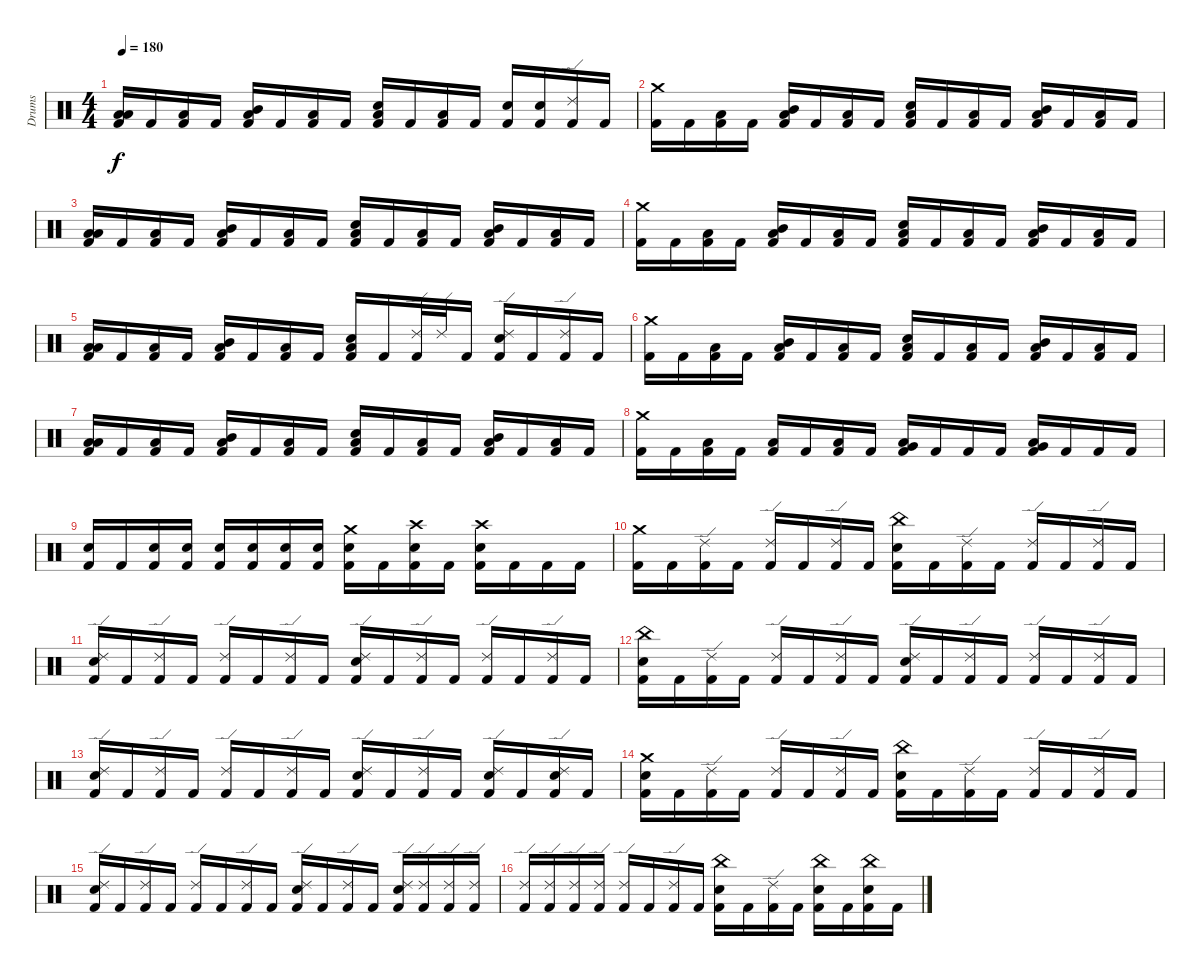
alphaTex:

\track ("Drums" "Drums") {instrument percussion}
\staff {score}
\articulation defaults
\ts (4 4)
\tempo 180
\clef neutral
\ks c
("Low Floor Tom (hit)" "Low Tom (hit)" "Kick (hit) 2").16{dy f} "Kick (hit) 2".16 ("Low Floor Tom (hit)" "Kick (hit) 2").16 "Kick (hit) 2".16 ("Low Floor Tom (hit)" "Mid Tom (hit)" "Kick (hit) 2").16 "Kick (hit) 2".16 ("Low Floor Tom (hit)" "Kick (hit) 2").16 "Kick (hit) 2".16 ("Low Floor Tom (hit)" "Snare (hit) 2" "Kick (hit) 2").16 "Kick (hit) 2".16 ("Low Floor Tom (hit)" "Kick (hit) 2").16 "Kick (hit) 2".16 ("Snare (hit) 2" "Kick (hit) 2").16 ("Snare (hit) 2" "Kick (hit) 2").16 ("Ride (edge) 2" "Kick (hit) 2").16 "Kick (hit) 2".16 |
("Crash medium (hit)" "Kick (hit) 2").16 "Kick (hit) 2".16 ("Low Floor Tom (hit)" "Kick (hit) 2").16 "Kick (hit) 2".16 ("Low Floor Tom (hit)" "Mid Tom (hit)" "Kick (hit) 2").16 "Kick (hit) 2".16 ("Low Floor Tom (hit)" "Kick (hit) 2").16 "Kick (hit) 2".16 ("Low Floor Tom (hit)" "Snare (hit) 2" "Kick (hit) 2").16 "Kick (hit) 2".16 ("Low Floor Tom (hit)" "Kick (hit) 2").16 "Kick (hit) 2".16 ("Low Floor Tom (hit)" "Mid Tom (hit)" "Kick (hit) 2").16 "Kick (hit) 2".16 ("Low Floor Tom (hit)" "Kick (hit) 2").16 "Kick (hit) 2".16 |
("Low Floor Tom (hit)" "Low Tom (hit)" "Kick (hit) 2").16 "Kick (hit) 2".16 ("Low Floor Tom (hit)" "Kick (hit) 2").16 "Kick (hit) 2".16 ("Low Floor Tom (hit)" "Mid Tom (hit)" "Kick (hit) 2").16 "Kick (hit) 2".16 ("Low Floor Tom (hit)" "Kick (hit) 2").16 "Kick (hit) 2".16 ("Low Floor Tom (hit)" "Snare (hit) 2" "Kick (hit) 2").16 "Kick (hit) 2".16 ("Low Floor Tom (hit)" "Kick (hit) 2").16 "Kick (hit) 2".16 ("Low Floor Tom (hit)" "Mid Tom (hit)" "Kick (hit) 2").16 "Kick (hit) 2".16 ("Low Floor Tom (hit)" "Kick (hit) 2").16 "Kick (hit) 2".16 |
("Crash medium (hit)" "Kick (hit) 2").16 "Kick (hit) 2".16 ("Low Floor Tom (hit)" "Kick (hit) 2").16 "Kick (hit) 2".16 ("Low Floor Tom (hit)" "Mid Tom (hit)" "Kick (hit) 2").16 "Kick (hit) 2".16 ("Low Floor Tom (hit)" "Kick (hit) 2").16 "Kick (hit) 2".16 ("Low Floor Tom (hit)" "Snare (hit) 2" "Kick (hit) 2").16 "Kick (hit) 2".16 ("Low Floor Tom (hit)" "Kick (hit) 2").16 "Kick (hit) 2".16 ("Low Floor Tom (hit)" "Mid Tom (hit)" "Kick (hit) 2").16 "Kick (hit) 2".16 ("Low Floor Tom (hit)" "Kick (hit) 2").16 "Kick (hit) 2".16 |
("Low Floor Tom (hit)" "Low Tom (hit)" "Kick (hit) 2").16 "Kick (hit) 2".16 ("Low Floor Tom (hit)" "Kick (hit) 2").16 "Kick (hit) 2".16 ("Low Floor Tom (hit)" "Mid Tom (hit)" "Kick (hit) 2").16 "Kick (hit) 2".16 ("Low Floor Tom (hit)" "Kick (hit) 2").16 "Kick (hit) 2".16 ("Low Floor Tom (hit)" "Snare (hit) 2" "Kick (hit) 2").16 "Kick (hit) 2".16 ("Ride (edge) 2" "Kick (hit) 2").32 "Ride (edge) 2".32 "Kick (hit) 2".16 ("Ride (edge) 2" "Snare (hit) 2" "Kick (hit) 2").16 "Kick (hit) 2".16 ("Ride (edge) 2" "Kick (hit) 2").16 "Kick (hit) 2".16 |
("Crash medium (hit)" "Kick (hit) 2").16 "Kick (hit) 2".16 ("Low Floor Tom (hit)" "Kick (hit) 2").16 "Kick (hit) 2".16 ("Low Floor Tom (hit)" "Mid Tom (hit)" "Kick (hit) 2").16 "Kick (hit) 2".16 ("Low Floor Tom (hit)" "Kick (hit) 2").16 "Kick (hit) 2".16 ("Low Floor Tom (hit)" "Snare (hit) 2" "Kick (hit) 2").16 "Kick (hit) 2".16 ("Low Floor Tom (hit)" "Kick (hit) 2").16 "Kick (hit) 2".16 ("Low Floor Tom (hit)" "Mid Tom (hit)" "Kick (hit) 2").16 "Kick (hit) 2".16 ("Low Floor Tom (hit)" "Kick (hit) 2").16 "Kick (hit) 2".16 |
("Low Floor Tom (hit)" "Low Tom (hit)" "Kick (hit) 2").16 "Kick (hit) 2".16 ("Low Floor Tom (hit)" "Kick (hit) 2").16 "Kick (hit) 2".16 ("Low Floor Tom (hit)" "Mid Tom (hit)" "Kick (hit) 2").16 "Kick (hit) 2".16 ("Low Floor Tom (hit)" "Kick (hit) 2").16 "Kick (hit) 2".16 ("Low Floor Tom (hit)" "Snare (hit) 2" "Kick (hit) 2").16 "Kick (hit) 2".16 ("Low Floor Tom (hit)" "Kick (hit) 2").16 "Kick (hit) 2".16 ("Low Floor Tom (hit)" "Mid Tom (hit)" "Kick (hit) 2").16 "Kick (hit) 2".16 ("Low Floor Tom (hit)" "Kick (hit) 2").16 "Kick (hit) 2".16 |
("Crash medium (hit)" "Kick (hit) 2").16 "Kick (hit) 2".16 ("Low Floor Tom (hit)" "Kick (hit) 2").16 "Kick (hit) 2".16 ("Low Floor Tom (hit)" "Kick (hit) 2").16 "Kick (hit) 2".16 ("Low Floor Tom (hit)" "Kick (hit) 2").16 "Kick (hit) 2".16 ("Low Tom (hit)" "Very Low Tom (hit)" "Kick (hit) 2").16 "Kick (hit) 2".16 "Kick (hit) 2".16 "Kick (hit) 2".16 ("Very Low Tom (hit)" "Low Floor Tom (hit)" "Kick (hit) 2").16 "Kick (hit) 2".16 "Kick (hit) 2".16 "Kick (hit) 2".16 |
("Snare (hit) 2" "Kick (hit) 2").16 "Kick (hit) 2".16 ("Snare (hit) 2" "Kick (hit) 2").16 ("Snare (hit) 2" "Kick (hit) 2").16 ("Snare (hit) 2" "Kick (hit) 2").16 ("Snare (hit) 2" "Kick (hit) 2").16 ("Snare (hit) 2" "Kick (hit) 2").16 ("Snare (hit) 2" "Kick (hit) 2").16 ("Crash medium (hit)" "Snare (hit) 2" "Kick (hit) 2").16 "Kick (hit) 2".16 ("Crash high (hit)" "Snare (hit) 2" "Kick (hit) 2").16 "Kick (hit) 2".16 ("Crash high (hit)" "Snare (hit) 2" "Kick (hit) 2").16 "Kick (hit) 2".16 "Kick (hit) 2".16 "Kick (hit) 2".16 |
("Crash medium (hit)" "Kick (hit) 2").16 "Kick (hit) 2".16 ("Ride (edge) 2" "Kick (hit) 2").16 "Kick (hit) 2".16 ("Ride (edge) 2" "Kick (hit) 2").16 "Kick (hit) 2".16 ("Ride (edge) 2" "Kick (hit) 2").16 "Kick (hit) 2".16 ("China (hit)" "Snare (hit) 2" "Kick (hit) 2").16 "Kick (hit) 2".16 ("Ride (edge) 2" "Kick (hit) 2").16 "Kick (hit) 2".16 ("Ride (edge) 2" "Kick (hit) 2").16 "Kick (hit) 2".16 ("Ride (edge) 2" "Kick (hit) 2").16 "Kick (hit) 2".16 |
("Ride (edge) 2" "Snare (hit) 2" "Kick (hit) 2").16 "Kick (hit) 2".16 ("Ride (edge) 2" "Kick (hit) 2").16 "Kick (hit) 2".16 ("Ride (edge) 2" "Kick (hit) 2").16 "Kick (hit) 2".16 ("Ride (edge) 2" "Kick (hit) 2").16 "Kick (hit) 2".16 ("Ride (edge) 2" "Snare (hit) 2" "Kick (hit) 2").16 "Kick (hit) 2".16 ("Ride (edge) 2" "Kick (hit) 2").16 "Kick (hit) 2".16 ("Ride (edge) 2" "Kick (hit) 2").16 "Kick (hit) 2".16 ("Ride (edge) 2" "Kick (hit) 2").16 "Kick (hit) 2".16 |
("China (hit)" "Snare (hit) 2" "Kick (hit) 2").16 "Kick (hit) 2".16 ("Ride (edge) 2" "Kick (hit) 2").16 "Kick (hit) 2".16 ("Ride (edge) 2" "Kick (hit) 2").16 "Kick (hit) 2".16 ("Ride (edge) 2" "Kick (hit) 2").16 "Kick (hit) 2".16 ("Ride (edge) 2" "Snare (hit) 2" "Kick (hit) 2").16 "Kick (hit) 2".16 ("Ride (edge) 2" "Kick (hit) 2").16 "Kick (hit) 2".16 ("Ride (edge) 2" "Kick (hit) 2").16 "Kick (hit) 2".16 ("Ride (edge) 2" "Kick (hit) 2").16 "Kick (hit) 2".16 |
("Ride (edge) 2" "Snare (hit) 2" "Kick (hit) 2").16 "Kick (hit) 2".16 ("Ride (edge) 2" "Kick (hit) 2").16 "Kick (hit) 2".16 ("Ride (edge) 2" "Kick (hit) 2").16 "Kick (hit) 2".16 ("Ride (edge) 2" "Kick (hit) 2").16 "Kick (hit) 2".16 ("Ride (edge) 2" "Snare (hit) 2" "Kick (hit) 2").16 "Kick (hit) 2".16 ("Ride (edge) 2" "Kick (hit) 2").16 "Kick (hit) 2".16 ("Ride (edge) 2" "Snare (hit) 2" "Kick (hit) 2").16 "Kick (hit) 2".16 ("Ride (edge) 2" "Snare (hit) 2" "Kick (hit) 2").16 "Kick (hit) 2".16 |
("Crash medium (hit)" "Snare (hit) 2" "Kick (hit) 2").16 "Kick (hit) 2".16 ("Ride (edge) 2" "Kick (hit) 2").16 "Kick (hit) 2".16 ("Ride (edge) 2" "Kick (hit) 2").16 "Kick (hit) 2".16 ("Ride (edge) 2" "Kick (hit) 2").16 "Kick (hit) 2".16 ("China (hit)" "Snare (hit) 2" "Kick (hit) 2").16 "Kick (hit) 2".16 ("Ride (edge) 2" "Kick (hit) 2").16 "Kick (hit) 2".16 ("Ride (edge) 2" "Kick (hit) 2").16 "Kick (hit) 2".16 ("Ride (edge) 2" "Kick (hit) 2").16 "Kick (hit) 2".16 |
("Ride (edge) 2" "Snare (hit) 2" "Kick (hit) 2").16 "Kick (hit) 2".16 ("Ride (edge) 2" "Kick (hit) 2").16 "Kick (hit) 2".16 ("Ride (edge) 2" "Kick (hit) 2").16 "Kick (hit) 2".16 ("Ride (edge) 2" "Kick (hit) 2").16 "Kick (hit) 2".16 ("Ride (edge) 2" "Snare (hit) 2" "Kick (hit) 2").16 "Kick (hit) 2".16 ("Ride (edge) 2" "Kick (hit) 2").16 "Kick (hit) 2".16 ("Ride (edge) 2" "Snare (hit) 2" "Kick (hit) 2").16 ("Ride (edge) 2" "Kick (hit) 2").16 ("Ride (edge) 2" "Kick (hit) 2").16 ("Ride (edge) 2" "Kick (hit) 2").16 |
("Ride (edge) 2" "Kick (hit) 2").16 ("Ride (edge) 2" "Kick (hit) 2").16 ("Ride (edge) 2" "Kick (hit) 2").16 ("Ride (edge) 2" "Kick (hit) 2").16 ("Ride (edge) 2" "Kick (hit) 2").16 "Kick (hit) 2".16 ("Ride (edge) 2" "Kick (hit) 2").16 "Kick (hit) 2".16 ("China (hit)" "Snare (hit) 2" "Kick (hit) 2").16 "Kick (hit) 2".16 ("Ride (edge) 2" "Kick (hit) 2").16 "Kick (hit) 2".16 ("China (hit)" "Snare (hit) 2" "Kick (hit) 2").16 "Kick (hit) 2".16 ("China (hit)" "Snare (hit) 2" "Kick (hit) 2").16 "Kick (hit) 2".16
